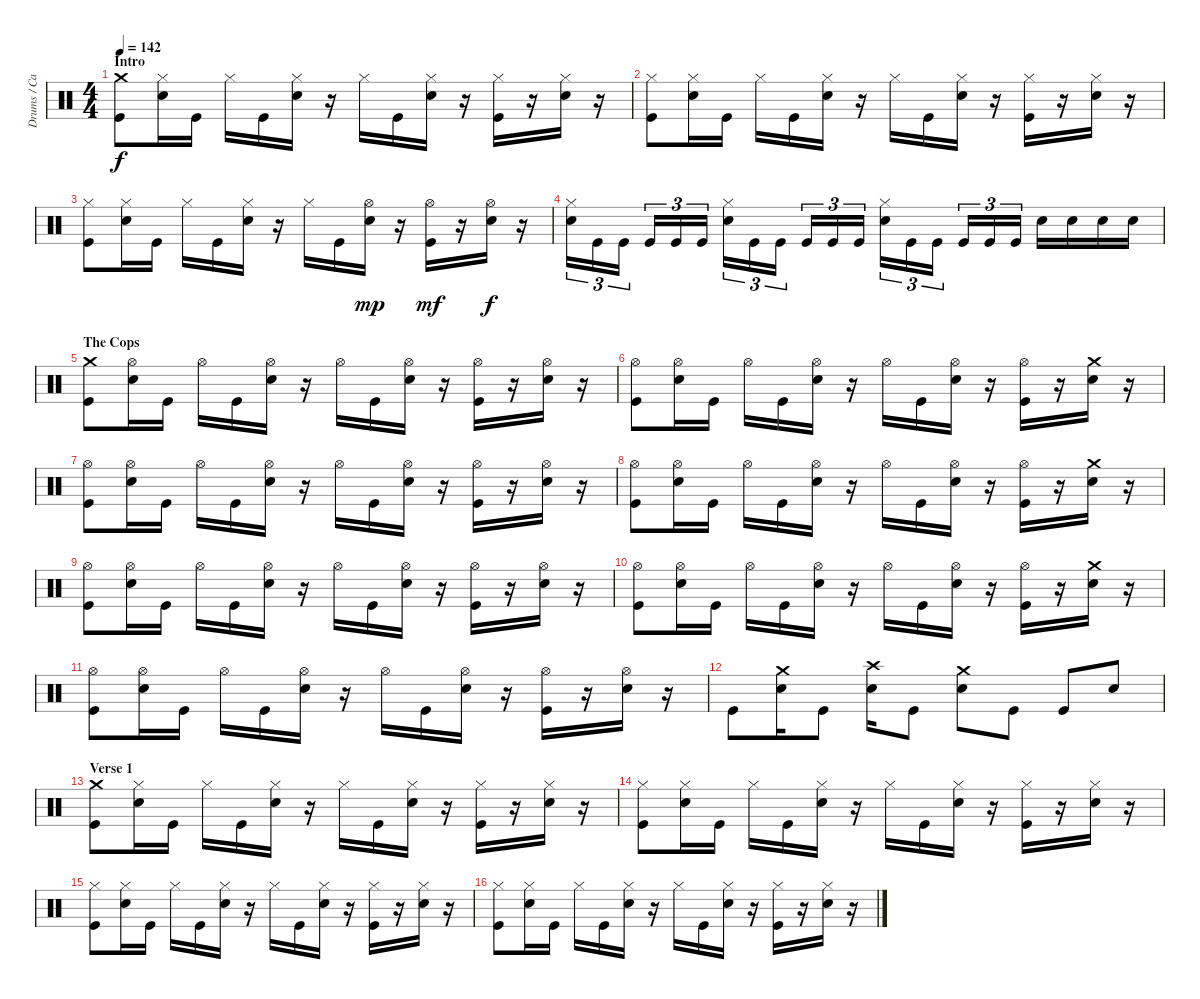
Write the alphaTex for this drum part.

\track ("Drums / Car " "Drums / Ca") {instrument percussion}
\staff {score}
\articulation defaults
\ts (4 4)
\section ("" "Intro")
\tempo 142
\clef neutral
\ks c
("Crash medium (hit)" "Kick (hit)").8{dy f} ("Hi-Hat (closed)" "Electric Snare (hit)").16 "Kick (hit)".16 "Hi-Hat (closed)".16 "Kick (hit)".16 ("Hi-Hat (closed)" "Electric Snare (hit)").16 r.16 "Hi-Hat (closed)".16 "Kick (hit)".16 ("Hi-Hat (closed)" "Electric Snare (hit)").16 r.16 ("Hi-Hat (closed)" "Kick (hit)").16 r.16 ("Hi-Hat (closed)" "Electric Snare (hit)").16 r.16 |
("Hi-Hat (closed)" "Kick (hit)").8 ("Hi-Hat (closed)" "Electric Snare (hit)").16 "Kick (hit)".16 "Hi-Hat (closed)".16 "Kick (hit)".16 ("Hi-Hat (closed)" "Electric Snare (hit)").16 r.16 "Hi-Hat (closed)".16 "Kick (hit)".16 ("Hi-Hat (closed)" "Electric Snare (hit)").16 r.16 ("Hi-Hat (closed)" "Kick (hit)").16 r.16 ("Hi-Hat (closed)" "Electric Snare (hit)").16 r.16 |
("Hi-Hat (closed)" "Kick (hit)").8 ("Hi-Hat (closed)" "Electric Snare (hit)").16 "Kick (hit)".16 "Hi-Hat (closed)".16 "Kick (hit)".16 ("Hi-Hat (closed)" "Electric Snare (hit)").16 r.16 "Hi-Hat (closed)".16 "Kick (hit)".16 ("Hi-Hat (open)" "Electric Snare (hit)").16{dy mp} r.16 ("Hi-Hat (open)" "Kick (hit)").16{dy mf} r.16 ("Hi-Hat (open)" "Electric Snare (hit)").16{dy f} r.16 |
("Hi-Hat (closed)" "Electric Snare (hit)").16{tu (3 2)} "Kick (hit)".16{tu (3 2)} "Kick (hit)".16{tu (3 2)} "Kick (hit)".16{tu (3 2)} "Kick (hit)".16{tu (3 2)} "Kick (hit)".16{tu (3 2)} ("Hi-Hat (closed)" "Electric Snare (hit)").16{tu (3 2)} "Kick (hit)".16{tu (3 2)} "Kick (hit)".16{tu (3 2)} "Kick (hit)".16{tu (3 2)} "Kick (hit)".16{tu (3 2)} "Kick (hit)".16{tu (3 2)} ("Hi-Hat (closed)" "Electric Snare (hit)").16{tu (3 2)} "Kick (hit)".16{tu (3 2)} "Kick (hit)".16{tu (3 2)} "Kick (hit)".16{tu (3 2)} "Kick (hit)".16{tu (3 2)} "Kick (hit)".16{tu (3 2)} "Electric Snare (hit)".16 "Electric Snare (hit)".16 "Electric Snare (hit)".16 "Electric Snare (hit)".16 |
\section ("" "The Cops")
("Crash medium (hit)" "Kick (hit)").8 ("Hi-Hat (open)" "Electric Snare (hit)").16 "Kick (hit)".16 "Hi-Hat (open)".16 "Kick (hit)".16 ("Hi-Hat (open)" "Electric Snare (hit)").16 r.16 "Hi-Hat (open)".16 "Kick (hit)".16 ("Hi-Hat (open)" "Electric Snare (hit)").16 r.16 ("Hi-Hat (open)" "Kick (hit)").16 r.16 ("Hi-Hat (open)" "Electric Snare (hit)").16 r.16 |
("Hi-Hat (open)" "Kick (hit)").8 ("Hi-Hat (open)" "Electric Snare (hit)").16 "Kick (hit)".16 "Hi-Hat (open)".16 "Kick (hit)".16 ("Hi-Hat (open)" "Electric Snare (hit)").16 r.16 "Hi-Hat (open)".16 "Kick (hit)".16 ("Hi-Hat (open)" "Electric Snare (hit)").16 r.16 ("Hi-Hat (open)" "Kick (hit)").16 r.16 ("Crash medium (hit)" "Electric Snare (hit)").16 r.16 |
("Hi-Hat (open)" "Kick (hit)").8 ("Hi-Hat (open)" "Electric Snare (hit)").16 "Kick (hit)".16 "Hi-Hat (open)".16 "Kick (hit)".16 ("Hi-Hat (open)" "Electric Snare (hit)").16 r.16 "Hi-Hat (open)".16 "Kick (hit)".16 ("Hi-Hat (open)" "Electric Snare (hit)").16 r.16 ("Hi-Hat (open)" "Kick (hit)").16 r.16 ("Hi-Hat (open)" "Electric Snare (hit)").16 r.16 |
("Hi-Hat (open)" "Kick (hit)").8 ("Hi-Hat (open)" "Electric Snare (hit)").16 "Kick (hit)".16 "Hi-Hat (open)".16 "Kick (hit)".16 ("Hi-Hat (open)" "Electric Snare (hit)").16 r.16 "Hi-Hat (open)".16 "Kick (hit)".16 ("Hi-Hat (open)" "Electric Snare (hit)").16 r.16 ("Hi-Hat (open)" "Kick (hit)").16 r.16 ("Crash medium (hit)" "Electric Snare (hit)").16 r.16 |
("Hi-Hat (open)" "Kick (hit)").8 ("Hi-Hat (open)" "Electric Snare (hit)").16 "Kick (hit)".16 "Hi-Hat (open)".16 "Kick (hit)".16 ("Hi-Hat (open)" "Electric Snare (hit)").16 r.16 "Hi-Hat (open)".16 "Kick (hit)".16 ("Hi-Hat (open)" "Electric Snare (hit)").16 r.16 ("Hi-Hat (open)" "Kick (hit)").16 r.16 ("Hi-Hat (open)" "Electric Snare (hit)").16 r.16 |
("Hi-Hat (open)" "Kick (hit)").8 ("Hi-Hat (open)" "Electric Snare (hit)").16 "Kick (hit)".16 "Hi-Hat (open)".16 "Kick (hit)".16 ("Hi-Hat (open)" "Electric Snare (hit)").16 r.16 "Hi-Hat (open)".16 "Kick (hit)".16 ("Hi-Hat (open)" "Electric Snare (hit)").16 r.16 ("Hi-Hat (open)" "Kick (hit)").16 r.16 ("Crash medium (hit)" "Electric Snare (hit)").16 r.16 |
("Hi-Hat (open)" "Kick (hit)").8 ("Hi-Hat (open)" "Electric Snare (hit)").16 "Kick (hit)".16 "Hi-Hat (open)".16 "Kick (hit)".16 ("Hi-Hat (open)" "Electric Snare (hit)").16 r.16 "Hi-Hat (open)".16 "Kick (hit)".16 ("Hi-Hat (open)" "Electric Snare (hit)").16 r.16 ("Hi-Hat (open)" "Kick (hit)").16 r.16 ("Hi-Hat (open)" "Electric Snare (hit)").16 r.16 |
"Kick (hit)".8 ("Crash medium (hit)" "Electric Snare (hit)").16 "Kick (hit)".8 ("Crash high (hit)" "Electric Snare (hit)").16 "Kick (hit)".8 ("Crash medium (hit)" "Electric Snare (hit)").8 "Kick (hit)".8 "Kick (hit)".8 "Electric Snare (hit)".8 |
\section ("" "Verse 1")
("Crash medium (hit)" "Kick (hit)").8 ("Hi-Hat (closed)" "Electric Snare (hit)").16 "Kick (hit)".16 "Hi-Hat (closed)".16 "Kick (hit)".16 ("Hi-Hat (closed)" "Electric Snare (hit)").16 r.16 "Hi-Hat (closed)".16 "Kick (hit)".16 ("Hi-Hat (closed)" "Electric Snare (hit)").16 r.16 ("Hi-Hat (closed)" "Kick (hit)").16 r.16 ("Hi-Hat (closed)" "Electric Snare (hit)").16 r.16 |
("Hi-Hat (closed)" "Kick (hit)").8 ("Hi-Hat (closed)" "Electric Snare (hit)").16 "Kick (hit)".16 "Hi-Hat (closed)".16 "Kick (hit)".16 ("Hi-Hat (closed)" "Electric Snare (hit)").16 r.16 "Hi-Hat (closed)".16 "Kick (hit)".16 ("Hi-Hat (closed)" "Electric Snare (hit)").16 r.16 ("Hi-Hat (closed)" "Kick (hit)").16 r.16 ("Hi-Hat (closed)" "Electric Snare (hit)").16 r.16 |
("Hi-Hat (closed)" "Kick (hit)").8 ("Hi-Hat (closed)" "Electric Snare (hit)").16 "Kick (hit)".16 "Hi-Hat (closed)".16 "Kick (hit)".16 ("Hi-Hat (closed)" "Electric Snare (hit)").16 r.16 "Hi-Hat (closed)".16 "Kick (hit)".16 ("Hi-Hat (closed)" "Electric Snare (hit)").16 r.16 ("Hi-Hat (closed)" "Kick (hit)").16 r.16 ("Hi-Hat (closed)" "Electric Snare (hit)").16 r.16 |
("Hi-Hat (closed)" "Kick (hit)").8 ("Hi-Hat (closed)" "Electric Snare (hit)").16 "Kick (hit)".16 "Hi-Hat (closed)".16 "Kick (hit)".16 ("Hi-Hat (closed)" "Electric Snare (hit)").16 r.16 "Hi-Hat (closed)".16 "Kick (hit)".16 ("Hi-Hat (closed)" "Electric Snare (hit)").16 r.16 ("Hi-Hat (closed)" "Kick (hit)").16 r.16 ("Hi-Hat (closed)" "Electric Snare (hit)").16 r.16
